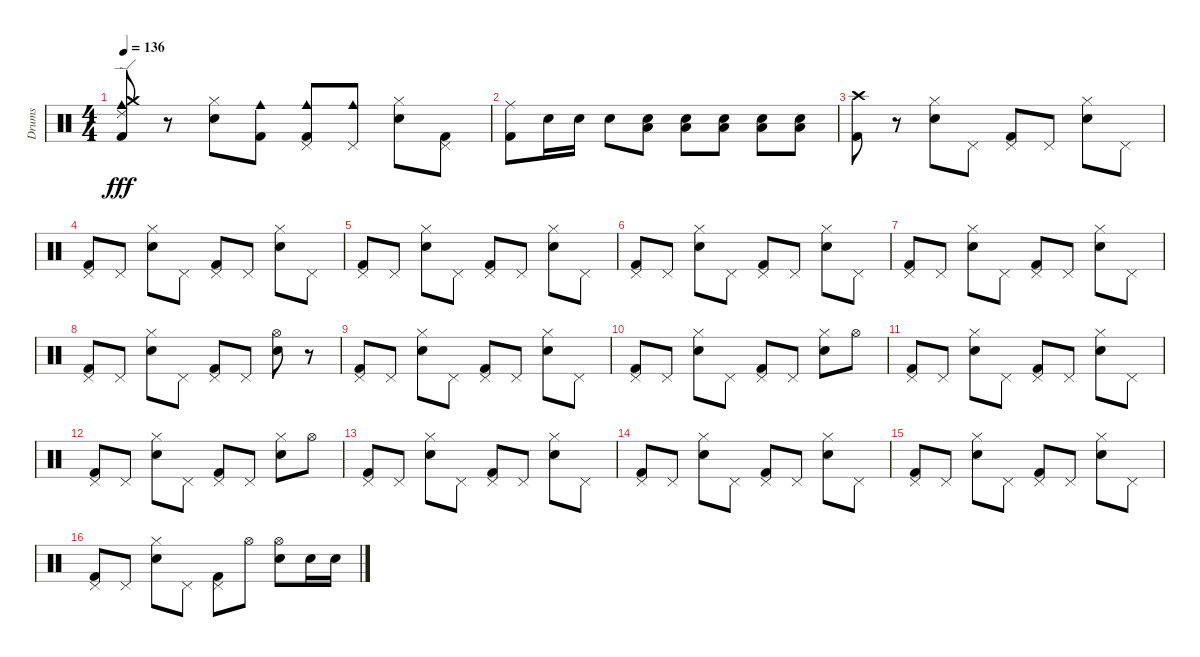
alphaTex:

\track ("Drums" "Drums") {instrument percussion}
\staff {score}
\articulation defaults
\ts (4 4)
\tempo 136
\clef neutral
\ks c
("Ride (edge) 2" "Crash medium (hit)" "Cowbell medium (hit)" "Kick (hit) 2").8{dy fff} r.8 ("Hi-Hat (closed)" "Snare (hit) 2").8 ("Cowbell medium (hit)" "Kick (hit) 2").8 ("Cowbell medium (hit)" "Pedal Hi-Hat (hit)" "Kick (hit) 2").8 ("Cowbell medium (hit)" "Pedal Hi-Hat (hit)").8 ("Hi-Hat (closed)" "Snare (hit) 2").8 ("Pedal Hi-Hat (hit)" "Kick (hit) 2").8 |
("Ride (middle)" "Kick (hit) 2").8 "Snare (hit) 2".16 "Snare (hit) 2".16 "Snare (hit) 2".8 ("Low Floor Tom (hit)" "Snare (hit) 2").8 ("Low Floor Tom (hit)" "Snare (hit) 2").8 ("Low Floor Tom (hit)" "Snare (hit) 2").8 ("Low Floor Tom (hit)" "Snare (hit) 2").8 ("Low Floor Tom (hit)" "Snare (hit) 2").8 |
("Crash high (hit)" "Kick (hit) 2").8 r.8 ("Hi-Hat (closed)" "Snare (hit) 2").8 "Pedal Hi-Hat (hit)".8 ("Pedal Hi-Hat (hit)" "Kick (hit) 2").8 "Pedal Hi-Hat (hit)".8 ("Hi-Hat (closed)" "Snare (hit) 2").8 "Pedal Hi-Hat (hit)".8 |
("Pedal Hi-Hat (hit)" "Kick (hit) 2").8 "Pedal Hi-Hat (hit)".8 ("Hi-Hat (closed)" "Snare (hit) 2").8 "Pedal Hi-Hat (hit)".8 ("Pedal Hi-Hat (hit)" "Kick (hit) 2").8 "Pedal Hi-Hat (hit)".8 ("Hi-Hat (closed)" "Snare (hit) 2").8 "Pedal Hi-Hat (hit)".8 |
("Pedal Hi-Hat (hit)" "Kick (hit) 2").8 "Pedal Hi-Hat (hit)".8 ("Hi-Hat (closed)" "Snare (hit) 2").8 "Pedal Hi-Hat (hit)".8 ("Pedal Hi-Hat (hit)" "Kick (hit) 2").8 "Pedal Hi-Hat (hit)".8 ("Hi-Hat (closed)" "Snare (hit) 2").8 "Pedal Hi-Hat (hit)".8 |
("Pedal Hi-Hat (hit)" "Kick (hit) 2").8 "Pedal Hi-Hat (hit)".8 ("Hi-Hat (closed)" "Snare (hit) 2").8 "Pedal Hi-Hat (hit)".8 ("Pedal Hi-Hat (hit)" "Kick (hit) 2").8 "Pedal Hi-Hat (hit)".8 ("Hi-Hat (closed)" "Snare (hit) 2").8 "Pedal Hi-Hat (hit)".8 |
("Pedal Hi-Hat (hit)" "Kick (hit) 2").8 "Pedal Hi-Hat (hit)".8 ("Hi-Hat (closed)" "Snare (hit) 2").8 "Pedal Hi-Hat (hit)".8 ("Pedal Hi-Hat (hit)" "Kick (hit) 2").8 "Pedal Hi-Hat (hit)".8 ("Hi-Hat (closed)" "Snare (hit) 2").8 "Pedal Hi-Hat (hit)".8 |
("Pedal Hi-Hat (hit)" "Kick (hit) 2").8 "Pedal Hi-Hat (hit)".8 ("Hi-Hat (closed)" "Snare (hit) 2").8 "Pedal Hi-Hat (hit)".8 ("Pedal Hi-Hat (hit)" "Kick (hit) 2").8 "Pedal Hi-Hat (hit)".8 ("Hi-Hat (open)" "Snare (hit) 2").8 r.8 |
("Pedal Hi-Hat (hit)" "Kick (hit) 2").8 "Pedal Hi-Hat (hit)".8 ("Hi-Hat (closed)" "Snare (hit) 2").8 "Pedal Hi-Hat (hit)".8 ("Pedal Hi-Hat (hit)" "Kick (hit) 2").8 "Pedal Hi-Hat (hit)".8 ("Hi-Hat (closed)" "Snare (hit) 2").8 "Pedal Hi-Hat (hit)".8 |
("Pedal Hi-Hat (hit)" "Kick (hit) 2").8 "Pedal Hi-Hat (hit)".8 ("Hi-Hat (closed)" "Snare (hit) 2").8 "Pedal Hi-Hat (hit)".8 ("Pedal Hi-Hat (hit)" "Kick (hit) 2").8 "Pedal Hi-Hat (hit)".8 ("Hi-Hat (closed)" "Snare (hit) 2").8 "Hi-Hat (open)".8 |
("Pedal Hi-Hat (hit)" "Kick (hit) 2").8 "Pedal Hi-Hat (hit)".8 ("Hi-Hat (closed)" "Snare (hit) 2").8 "Pedal Hi-Hat (hit)".8 ("Pedal Hi-Hat (hit)" "Kick (hit) 2").8 "Pedal Hi-Hat (hit)".8 ("Hi-Hat (closed)" "Snare (hit) 2").8 "Pedal Hi-Hat (hit)".8 |
("Pedal Hi-Hat (hit)" "Kick (hit) 2").8 "Pedal Hi-Hat (hit)".8 ("Hi-Hat (closed)" "Snare (hit) 2").8 "Pedal Hi-Hat (hit)".8 ("Pedal Hi-Hat (hit)" "Kick (hit) 2").8 "Pedal Hi-Hat (hit)".8 ("Hi-Hat (closed)" "Snare (hit) 2").8 "Hi-Hat (open)".8 |
("Pedal Hi-Hat (hit)" "Kick (hit) 2").8 "Pedal Hi-Hat (hit)".8 ("Hi-Hat (closed)" "Snare (hit) 2").8 "Pedal Hi-Hat (hit)".8 ("Pedal Hi-Hat (hit)" "Kick (hit) 2").8 "Pedal Hi-Hat (hit)".8 ("Hi-Hat (closed)" "Snare (hit) 2").8 "Pedal Hi-Hat (hit)".8 |
("Pedal Hi-Hat (hit)" "Kick (hit) 2").8 "Pedal Hi-Hat (hit)".8 ("Hi-Hat (closed)" "Snare (hit) 2").8 "Pedal Hi-Hat (hit)".8 ("Pedal Hi-Hat (hit)" "Kick (hit) 2").8 "Pedal Hi-Hat (hit)".8 ("Hi-Hat (closed)" "Snare (hit) 2").8 "Pedal Hi-Hat (hit)".8 |
("Pedal Hi-Hat (hit)" "Kick (hit) 2").8 "Pedal Hi-Hat (hit)".8 ("Hi-Hat (closed)" "Snare (hit) 2").8 "Pedal Hi-Hat (hit)".8 ("Pedal Hi-Hat (hit)" "Kick (hit) 2").8 "Pedal Hi-Hat (hit)".8 ("Hi-Hat (closed)" "Snare (hit) 2").8 "Pedal Hi-Hat (hit)".8 |
("Pedal Hi-Hat (hit)" "Kick (hit) 2").8 "Pedal Hi-Hat (hit)".8 ("Hi-Hat (closed)" "Snare (hit) 2").8 "Pedal Hi-Hat (hit)".8 ("Pedal Hi-Hat (hit)" "Kick (hit) 2").8 "Hi-Hat (open)".8 ("Hi-Hat (open)" "Snare (hit) 2").8 "Snare (hit) 2".16 "Snare (hit) 2".16
